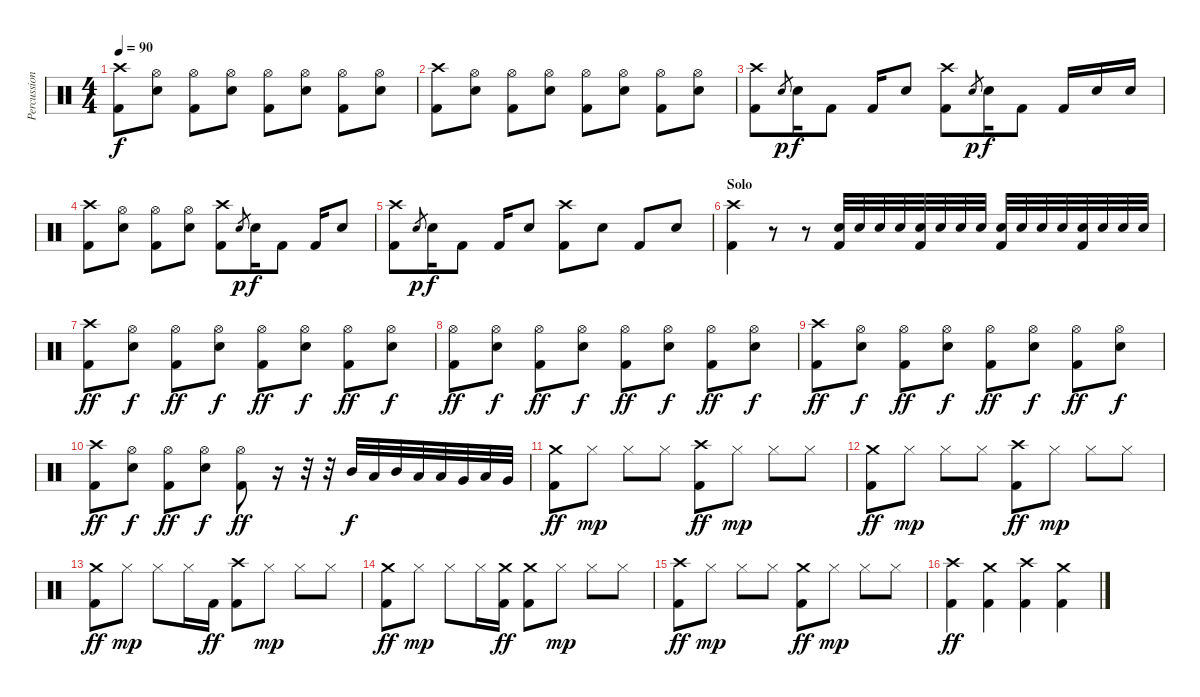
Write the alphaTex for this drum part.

\track ("Percussion" "Percussion") {instrument percussion}
\staff {score}
\articulation defaults
\ts (4 4)
\tempo 90
\clef neutral
\ks c
("Crash high (hit)" "Kick (hit) 2").8{dy f} ("Hi-Hat (open)" "Electric Snare (hit)").8 ("Hi-Hat (open)" "Kick (hit) 2").8 ("Hi-Hat (open)" "Electric Snare (hit)").8 ("Hi-Hat (open)" "Kick (hit) 2").8 ("Hi-Hat (open)" "Electric Snare (hit)").8 ("Hi-Hat (open)" "Kick (hit) 2").8 ("Hi-Hat (open)" "Electric Snare (hit)").8 |
("Crash high (hit)" "Kick (hit) 2").8 ("Hi-Hat (open)" "Electric Snare (hit)").8 ("Hi-Hat (open)" "Kick (hit) 2").8 ("Hi-Hat (open)" "Electric Snare (hit)").8 ("Hi-Hat (open)" "Kick (hit) 2").8 ("Hi-Hat (open)" "Electric Snare (hit)").8 ("Hi-Hat (open)" "Kick (hit) 2").8 ("Hi-Hat (open)" "Electric Snare (hit)").8 |
("Crash high (hit)" "Kick (hit) 2").8 "Electric Snare (hit)"{h}.8{gr dy p} "Electric Snare (hit)".16{dy f} "Kick (hit) 2".8 "Kick (hit) 2".16 "Electric Snare (hit)".8 ("Crash high (hit)" "Kick (hit) 2").8 "Electric Snare (hit)"{h}.8{gr dy p} "Electric Snare (hit)".16{dy f} "Kick (hit) 2".8 "Kick (hit) 2".16 "Electric Snare (hit)".16 "Electric Snare (hit)".16 |
("Crash high (hit)" "Kick (hit) 2").8 ("Hi-Hat (open)" "Electric Snare (hit)").8 ("Hi-Hat (open)" "Kick (hit) 2").8 ("Hi-Hat (open)" "Electric Snare (hit)").8 ("Crash high (hit)" "Kick (hit) 2").8 "Electric Snare (hit)"{h}.8{gr dy p} "Electric Snare (hit)".16{dy f} "Kick (hit) 2".8 "Kick (hit) 2".16 "Electric Snare (hit)".8 |
("Crash high (hit)" "Kick (hit) 2").8 "Electric Snare (hit)"{h}.8{gr dy p} "Electric Snare (hit)".16{dy f} "Kick (hit) 2".8 "Kick (hit) 2".16 "Electric Snare (hit)".8 ("Crash high (hit)" "Kick (hit) 2").8 "Electric Snare (hit)".8 "Kick (hit) 2".8 "Electric Snare (hit)".8 |
\section ("" "Solo")
("Crash high (hit)" "Kick (hit) 2").4 r.8 r.8 ("Electric Snare (hit)" "Kick (hit) 2").32 "Electric Snare (hit)".32 "Electric Snare (hit)".32 "Electric Snare (hit)".32 ("Electric Snare (hit)" "Kick (hit) 2").32 "Electric Snare (hit)".32 "Electric Snare (hit)".32 "Electric Snare (hit)".32 ("Electric Snare (hit)" "Kick (hit) 2").32 "Electric Snare (hit)".32 "Electric Snare (hit)".32 "Electric Snare (hit)".32 ("Electric Snare (hit)" "Kick (hit) 2").32 "Electric Snare (hit)".32 "Electric Snare (hit)".32 "Electric Snare (hit)".32 |
("Crash high (hit)" "Kick (hit) 2").8{dy ff} ("Hi-Hat (open)" "Electric Snare (hit)").8{dy f} ("Hi-Hat (open)" "Kick (hit) 2").8{dy ff} ("Hi-Hat (open)" "Electric Snare (hit)").8{dy f} ("Hi-Hat (open)" "Kick (hit) 2").8{dy ff} ("Hi-Hat (open)" "Electric Snare (hit)").8{dy f} ("Hi-Hat (open)" "Kick (hit) 2").8{dy ff} ("Hi-Hat (open)" "Electric Snare (hit)").8{dy f} |
("Hi-Hat (open)" "Kick (hit) 2").8{dy ff} ("Hi-Hat (open)" "Electric Snare (hit)").8{dy f} ("Hi-Hat (open)" "Kick (hit) 2").8{dy ff} ("Hi-Hat (open)" "Electric Snare (hit)").8{dy f} ("Hi-Hat (open)" "Kick (hit) 2").8{dy ff} ("Hi-Hat (open)" "Electric Snare (hit)").8{dy f} ("Hi-Hat (open)" "Kick (hit) 2").8{dy ff} ("Hi-Hat (open)" "Electric Snare (hit)").8{dy f} |
("Crash high (hit)" "Kick (hit) 2").8{dy ff} ("Hi-Hat (open)" "Electric Snare (hit)").8{dy f} ("Hi-Hat (open)" "Kick (hit) 2").8{dy ff} ("Hi-Hat (open)" "Electric Snare (hit)").8{dy f} ("Hi-Hat (open)" "Kick (hit) 2").8{dy ff} ("Hi-Hat (open)" "Electric Snare (hit)").8{dy f} ("Hi-Hat (open)" "Kick (hit) 2").8{dy ff} ("Hi-Hat (open)" "Electric Snare (hit)").8{dy f} |
("Crash high (hit)" "Kick (hit) 2").8{dy ff} ("Hi-Hat (open)" "Electric Snare (hit)").8{dy f} ("Hi-Hat (open)" "Kick (hit) 2").8{dy ff} ("Hi-Hat (open)" "Electric Snare (hit)").8{dy f} ("Hi-Hat (open)" "Kick (hit) 2").8{dy ff} r.16 r.32 r.32 "Mid Tom (hit)".32{dy f} "Low Tom (hit)".32 "Mid Tom (hit)".32 "Low Tom (hit)".32 "Low Tom (hit)".32 "Very Low Tom (hit)".32 "Low Tom (hit)".32 "Very Low Tom (hit)".32 |
("Crash medium (hit)" "Kick (hit) 2").8{dy ff} "Hi-Hat (closed)".8{dy mp} "Hi-Hat (closed)".8 "Hi-Hat (closed)".8 ("Crash high (hit)" "Kick (hit) 2").8{dy ff} "Hi-Hat (closed)".8{dy mp} "Hi-Hat (closed)".8 "Hi-Hat (closed)".8 |
("Crash medium (hit)" "Kick (hit) 2").8{dy ff} "Hi-Hat (closed)".8{dy mp} "Hi-Hat (closed)".8 "Hi-Hat (closed)".8 ("Crash high (hit)" "Kick (hit) 2").8{dy ff} "Hi-Hat (closed)".8{dy mp} "Hi-Hat (closed)".8 "Hi-Hat (closed)".8 |
("Crash medium (hit)" "Kick (hit) 2").8{dy ff} "Hi-Hat (closed)".8{dy mp} "Hi-Hat (closed)".8 "Hi-Hat (closed)".16 "Kick (hit) 2".16{dy ff} ("Crash high (hit)" "Kick (hit) 2").8 "Hi-Hat (closed)".8{dy mp} "Hi-Hat (closed)".8 "Hi-Hat (closed)".8 |
("Crash medium (hit)" "Kick (hit) 2").8{dy ff} "Hi-Hat (closed)".8{dy mp} "Hi-Hat (closed)".8 "Hi-Hat (closed)".16 ("Crash medium (hit)" "Kick (hit) 2").16{dy ff} ("Crash medium (hit)" "Kick (hit) 2").8 "Hi-Hat (closed)".8{dy mp} "Hi-Hat (closed)".8 "Hi-Hat (closed)".8 |
("Crash high (hit)" "Kick (hit) 2").8{dy ff} "Hi-Hat (closed)".8{dy mp} "Hi-Hat (closed)".8 "Hi-Hat (closed)".8 ("Crash medium (hit)" "Kick (hit) 2").8{dy ff} "Hi-Hat (closed)".8{dy mp} "Hi-Hat (closed)".8 "Hi-Hat (closed)".8 |
("Crash high (hit)" "Kick (hit) 2").4{dy ff} ("Crash medium (hit)" "Kick (hit) 2").4 ("Crash high (hit)" "Kick (hit) 2").4 ("Crash medium (hit)" "Kick (hit) 2").4
